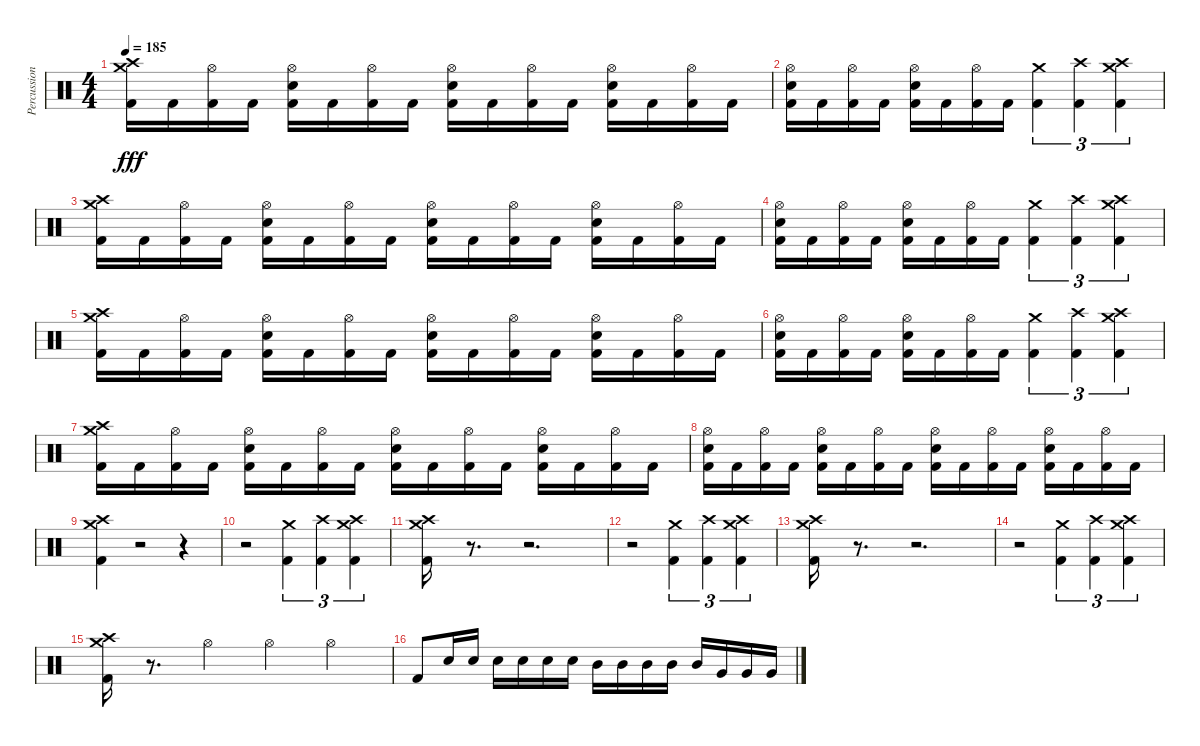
\track ("Percussion" "Percussion") {instrument percussion}
\staff {score}
\articulation defaults
\ts (4 4)
\tempo 185
\clef neutral
\ks c
("Kick (hit) 2" "Crash medium (hit)" "Crash high (hit)").16{dy fff} "Kick (hit) 2".16 ("Kick (hit) 2" "Hi-Hat (open)").16 "Kick (hit) 2".16 ("Kick (hit) 2" "Electric Snare (hit)" "Hi-Hat (open)").16 "Kick (hit) 2".16 ("Kick (hit) 2" "Hi-Hat (open)").16 "Kick (hit) 2".16 ("Kick (hit) 2" "Electric Snare (hit)" "Hi-Hat (open)").16 "Kick (hit) 2".16 ("Kick (hit) 2" "Hi-Hat (open)").16 "Kick (hit) 2".16 ("Kick (hit) 2" "Electric Snare (hit)" "Hi-Hat (open)").16 "Kick (hit) 2".16 ("Kick (hit) 2" "Hi-Hat (open)").16 "Kick (hit) 2".16 |
("Kick (hit) 2" "Electric Snare (hit)" "Hi-Hat (open)").16 "Kick (hit) 2".16 ("Kick (hit) 2" "Hi-Hat (open)").16 "Kick (hit) 2".16 ("Kick (hit) 2" "Electric Snare (hit)" "Hi-Hat (open)").16 "Kick (hit) 2".16 ("Kick (hit) 2" "Hi-Hat (open)").16 "Kick (hit) 2".16 ("Kick (hit) 2" "Crash medium (hit)").4{tu (3 2)} ("Kick (hit) 2" "Crash high (hit)").4{tu (3 2)} ("Kick (hit) 2" "Crash medium (hit)" "Crash high (hit)").4{tu (3 2)} |
("Kick (hit) 2" "Crash medium (hit)" "Crash high (hit)").16 "Kick (hit) 2".16 ("Kick (hit) 2" "Hi-Hat (open)").16 "Kick (hit) 2".16 ("Kick (hit) 2" "Electric Snare (hit)" "Hi-Hat (open)").16 "Kick (hit) 2".16 ("Kick (hit) 2" "Hi-Hat (open)").16 "Kick (hit) 2".16 ("Kick (hit) 2" "Electric Snare (hit)" "Hi-Hat (open)").16 "Kick (hit) 2".16 ("Kick (hit) 2" "Hi-Hat (open)").16 "Kick (hit) 2".16 ("Kick (hit) 2" "Electric Snare (hit)" "Hi-Hat (open)").16 "Kick (hit) 2".16 ("Kick (hit) 2" "Hi-Hat (open)").16 "Kick (hit) 2".16 |
("Kick (hit) 2" "Electric Snare (hit)" "Hi-Hat (open)").16 "Kick (hit) 2".16 ("Kick (hit) 2" "Hi-Hat (open)").16 "Kick (hit) 2".16 ("Kick (hit) 2" "Electric Snare (hit)" "Hi-Hat (open)").16 "Kick (hit) 2".16 ("Kick (hit) 2" "Hi-Hat (open)").16 "Kick (hit) 2".16 ("Kick (hit) 2" "Crash medium (hit)").4{tu (3 2)} ("Kick (hit) 2" "Crash high (hit)").4{tu (3 2)} ("Kick (hit) 2" "Crash medium (hit)" "Crash high (hit)").4{tu (3 2)} |
("Kick (hit) 2" "Crash medium (hit)" "Crash high (hit)").16 "Kick (hit) 2".16 ("Kick (hit) 2" "Hi-Hat (open)").16 "Kick (hit) 2".16 ("Kick (hit) 2" "Electric Snare (hit)" "Hi-Hat (open)").16 "Kick (hit) 2".16 ("Kick (hit) 2" "Hi-Hat (open)").16 "Kick (hit) 2".16 ("Kick (hit) 2" "Electric Snare (hit)" "Hi-Hat (open)").16 "Kick (hit) 2".16 ("Kick (hit) 2" "Hi-Hat (open)").16 "Kick (hit) 2".16 ("Kick (hit) 2" "Electric Snare (hit)" "Hi-Hat (open)").16 "Kick (hit) 2".16 ("Kick (hit) 2" "Hi-Hat (open)").16 "Kick (hit) 2".16 |
("Kick (hit) 2" "Electric Snare (hit)" "Hi-Hat (open)").16 "Kick (hit) 2".16 ("Kick (hit) 2" "Hi-Hat (open)").16 "Kick (hit) 2".16 ("Kick (hit) 2" "Electric Snare (hit)" "Hi-Hat (open)").16 "Kick (hit) 2".16 ("Kick (hit) 2" "Hi-Hat (open)").16 "Kick (hit) 2".16 ("Kick (hit) 2" "Crash medium (hit)").4{tu (3 2)} ("Kick (hit) 2" "Crash high (hit)").4{tu (3 2)} ("Kick (hit) 2" "Crash medium (hit)" "Crash high (hit)").4{tu (3 2)} |
("Kick (hit) 2" "Crash medium (hit)" "Crash high (hit)").16 "Kick (hit) 2".16 ("Kick (hit) 2" "Hi-Hat (open)").16 "Kick (hit) 2".16 ("Kick (hit) 2" "Electric Snare (hit)" "Hi-Hat (open)").16 "Kick (hit) 2".16 ("Kick (hit) 2" "Hi-Hat (open)").16 "Kick (hit) 2".16 ("Kick (hit) 2" "Electric Snare (hit)" "Hi-Hat (open)").16 "Kick (hit) 2".16 ("Kick (hit) 2" "Hi-Hat (open)").16 "Kick (hit) 2".16 ("Kick (hit) 2" "Electric Snare (hit)" "Hi-Hat (open)").16 "Kick (hit) 2".16 ("Kick (hit) 2" "Hi-Hat (open)").16 "Kick (hit) 2".16 |
("Kick (hit) 2" "Electric Snare (hit)" "Hi-Hat (open)").16 "Kick (hit) 2".16 ("Kick (hit) 2" "Hi-Hat (open)").16 "Kick (hit) 2".16 ("Kick (hit) 2" "Electric Snare (hit)" "Hi-Hat (open)").16 "Kick (hit) 2".16 ("Kick (hit) 2" "Hi-Hat (open)").16 "Kick (hit) 2".16 ("Kick (hit) 2" "Electric Snare (hit)" "Hi-Hat (open)").16 "Kick (hit) 2".16 ("Kick (hit) 2" "Hi-Hat (open)").16 "Kick (hit) 2".16 ("Kick (hit) 2" "Electric Snare (hit)" "Hi-Hat (open)").16 "Kick (hit) 2".16 ("Kick (hit) 2" "Hi-Hat (open)").16 "Kick (hit) 2".16 |
("Kick (hit) 2" "Crash medium (hit)" "Crash high (hit)").4 r.2 r.4 |
r.2 ("Kick (hit) 2" "Crash medium (hit)").4{tu (3 2)} ("Kick (hit) 2" "Crash high (hit)").4{tu (3 2)} ("Kick (hit) 2" "Crash medium (hit)" "Crash high (hit)").4{tu (3 2)} |
("Kick (hit) 2" "Crash medium (hit)" "Crash high (hit)").16 r.8{d} r.2{d} |
r.2 ("Kick (hit) 2" "Crash medium (hit)").4{tu (3 2)} ("Kick (hit) 2" "Crash high (hit)").4{tu (3 2)} ("Kick (hit) 2" "Crash medium (hit)" "Crash high (hit)").4{tu (3 2)} |
("Kick (hit) 2" "Crash medium (hit)" "Crash high (hit)").16 r.8{d} r.2{d} |
r.2 ("Kick (hit) 2" "Crash medium (hit)").4{tu (3 2)} ("Kick (hit) 2" "Crash high (hit)").4{tu (3 2)} ("Kick (hit) 2" "Crash medium (hit)" "Crash high (hit)").4{tu (3 2)} |
("Kick (hit) 2" "Crash medium (hit)" "Crash high (hit)").16 r.8{d} "Hi-Hat (open)".4 "Hi-Hat (open)".4 "Hi-Hat (open)".4 |
"Kick (hit) 2".8 "Electric Snare (hit)".16 "Electric Snare (hit)".16 "Electric Snare (hit)".16 "Electric Snare (hit)".16 "Electric Snare (hit)".16 "Electric Snare (hit)".16 "Mid Tom (hit)".16 "Mid Tom (hit)".16 "Mid Tom (hit)".16 "Mid Tom (hit)".16 "Mid Tom (hit)".16 "Very Low Tom (hit)".16 "Very Low Tom (hit)".16 "Very Low Tom (hit)".16
